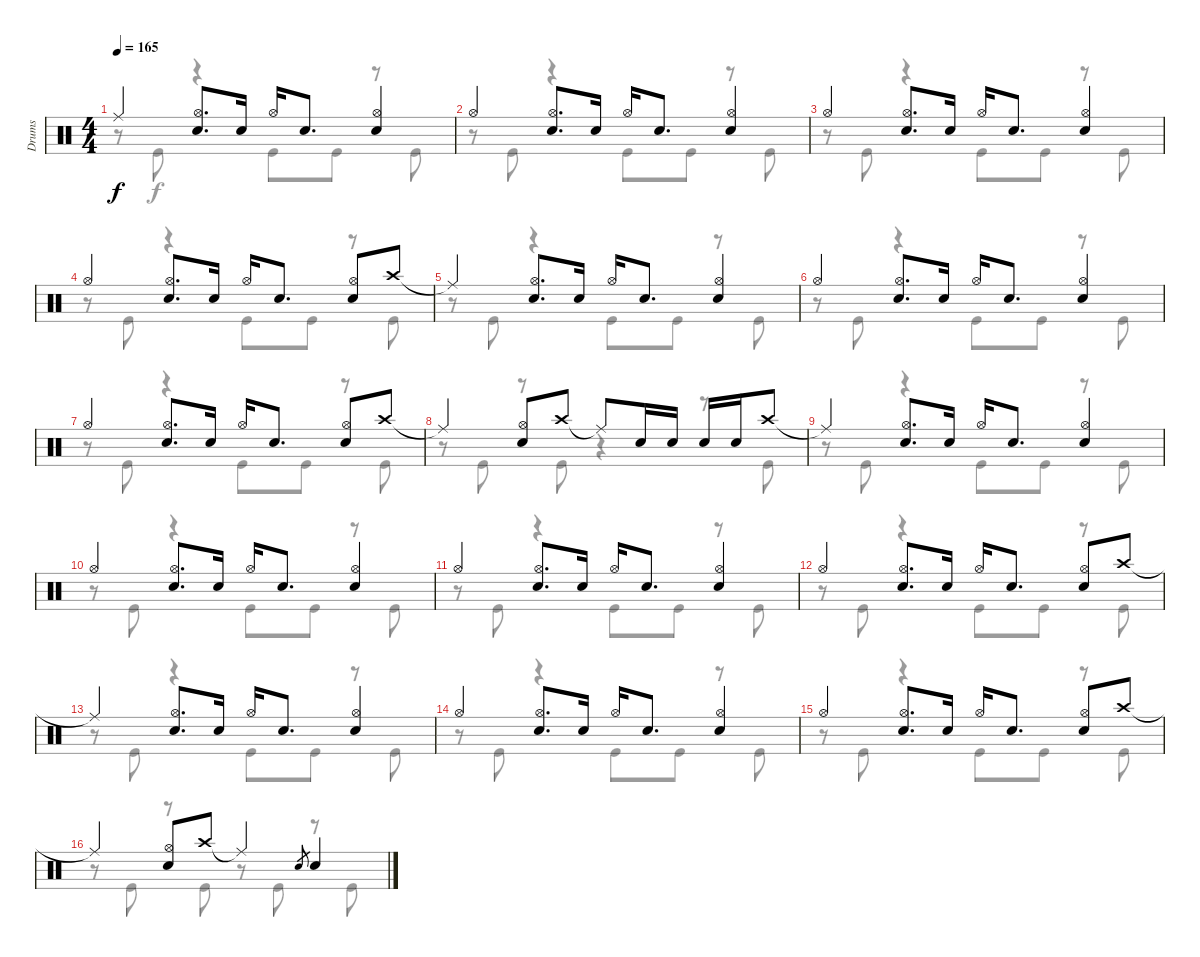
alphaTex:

\track ("Drums" "Drums") {instrument percussion}
\staff {score}
\articulation defaults
\voice
\ts (4 4)
\tempo 165
\clef neutral
\ks c "Ride (middle)"{t}.4{dy f beam Up}
("Hi-Hat (open)" "Snare (hit) 2").8{d beam Up} "Snare (hit) 2".16{beam Up} "Hi-Hat (open)".16{beam Up} "Snare (hit) 2".8{d beam Up} ("Hi-Hat (open)" "Snare (hit) 2").4{beam Up} |
"Hi-Hat (open)".4{beam Up} ("Hi-Hat (open)" "Snare (hit) 2").8{d beam Up} "Snare (hit) 2".16{beam Up} "Hi-Hat (open)".16{beam Up} "Snare (hit) 2".8{d beam Up} ("Hi-Hat (open)" "Snare (hit) 2").4{beam Up} |
"Hi-Hat (open)".4{beam Up} ("Hi-Hat (open)" "Snare (hit) 2").8{d beam Up} "Snare (hit) 2".16{beam Up} "Hi-Hat (open)".16{beam Up} "Snare (hit) 2".8{d beam Up} ("Hi-Hat (open)" "Snare (hit) 2").4{beam Up} |
"Hi-Hat (open)".4{beam Up} ("Hi-Hat (open)" "Snare (hit) 2").8{d beam Up} "Snare (hit) 2".16{beam Up} "Hi-Hat (open)".16{beam Up} "Snare (hit) 2".8{d beam Up} ("Hi-Hat (open)" "Snare (hit) 2").8{beam Up} "Crash high (hit)".8{beam Up} |
"Ride (middle)"{t}.4{beam Up} ("Hi-Hat (open)" "Snare (hit) 2").8{d beam Up} "Snare (hit) 2".16{beam Up} "Hi-Hat (open)".16{beam Up} "Snare (hit) 2".8{d beam Up} ("Hi-Hat (open)" "Snare (hit) 2").4{beam Up} |
"Hi-Hat (open)".4{beam Up} ("Hi-Hat (open)" "Snare (hit) 2").8{d beam Up} "Snare (hit) 2".16{beam Up} "Hi-Hat (open)".16{beam Up} "Snare (hit) 2".8{d beam Up} ("Hi-Hat (open)" "Snare (hit) 2").4{beam Up} |
"Hi-Hat (open)".4{beam Up} ("Hi-Hat (open)" "Snare (hit) 2").8{d beam Up} "Snare (hit) 2".16{beam Up} "Hi-Hat (open)".16{beam Up} "Snare (hit) 2".8{d beam Up} ("Hi-Hat (open)" "Snare (hit) 2").8{beam Up} "Crash high (hit)".8{beam Up} |
"Ride (middle)"{t}.4{beam Up} ("Hi-Hat (open)" "Snare (hit) 2").8{beam Up} "Crash high (hit)".8{beam Up} "Ride (middle)"{t}.8{beam Up} "Snare (hit) 2".16{beam Up} "Snare (hit) 2".16{beam Up} "Snare (hit) 2".16{beam Up} "Snare (hit) 2".16{beam Up} "Crash high (hit)".8{beam Up} |
"Ride (middle)"{t}.4{beam Up} ("Hi-Hat (open)" "Snare (hit) 2").8{d beam Up} "Snare (hit) 2".16{beam Up} "Hi-Hat (open)".16{beam Up} "Snare (hit) 2".8{d beam Up} ("Hi-Hat (open)" "Snare (hit) 2").4{beam Up} |
"Hi-Hat (open)".4{beam Up} ("Hi-Hat (open)" "Snare (hit) 2").8{d beam Up} "Snare (hit) 2".16{beam Up} "Hi-Hat (open)".16{beam Up} "Snare (hit) 2".8{d beam Up} ("Hi-Hat (open)" "Snare (hit) 2").4{beam Up} |
"Hi-Hat (open)".4{beam Up} ("Hi-Hat (open)" "Snare (hit) 2").8{d beam Up} "Snare (hit) 2".16{beam Up} "Hi-Hat (open)".16{beam Up} "Snare (hit) 2".8{d beam Up} ("Hi-Hat (open)" "Snare (hit) 2").4{beam Up} |
"Hi-Hat (open)".4{beam Up} ("Hi-Hat (open)" "Snare (hit) 2").8{d beam Up} "Snare (hit) 2".16{beam Up} "Hi-Hat (open)".16{beam Up} "Snare (hit) 2".8{d beam Up} ("Hi-Hat (open)" "Snare (hit) 2").8{beam Up} "Crash high (hit)".8{beam Up} |
"Ride (middle)"{t}.4{beam Up} ("Hi-Hat (open)" "Snare (hit) 2").8{d beam Up} "Snare (hit) 2".16{beam Up} "Hi-Hat (open)".16{beam Up} "Snare (hit) 2".8{d beam Up} ("Hi-Hat (open)" "Snare (hit) 2").4{beam Up} |
"Hi-Hat (open)".4{beam Up} ("Hi-Hat (open)" "Snare (hit) 2").8{d beam Up} "Snare (hit) 2".16{beam Up} "Hi-Hat (open)".16{beam Up} "Snare (hit) 2".8{d beam Up} ("Hi-Hat (open)" "Snare (hit) 2").4{beam Up} |
"Hi-Hat (open)".4{beam Up} ("Hi-Hat (open)" "Snare (hit) 2").8{d beam Up} "Snare (hit) 2".16{beam Up} "Hi-Hat (open)".16{beam Up} "Snare (hit) 2".8{d beam Up} ("Hi-Hat (open)" "Snare (hit) 2").8{beam Up} "Crash high (hit)".8{beam Up} |
"Ride (middle)"{t}.4{beam Up} ("Hi-Hat (open)" "Snare (hit) 2").8{beam Up} "Crash high (hit)".8{beam Up} "Ride (middle)"{t}.4{beam Up} "Snare (hit) 2".8{gr} "Snare (hit) 2".4{beam Up}
\voice
\clef neutral
\ottava regular
\simile none
\ks c
r.8{dy f} "Kick (hit)".8 r.4 "Kick (hit)".8 "Kick (hit)".8 r.8 "Kick (hit)".8 |
r.8 "Kick (hit)".8 r.4 "Kick (hit)".8 "Kick (hit)".8 r.8 "Kick (hit)".8 |
r.8 "Kick (hit)".8 r.4 "Kick (hit)".8 "Kick (hit)".8 r.8 "Kick (hit)".8 |
r.8 "Kick (hit)".8 r.4 "Kick (hit)".8 "Kick (hit)".8 r.8 "Kick (hit)".8 |
r.8 "Kick (hit)".8 r.4 "Kick (hit)".8 "Kick (hit)".8 r.8 "Kick (hit)".8 |
r.8 "Kick (hit)".8 r.4 "Kick (hit)".8 "Kick (hit)".8 r.8 "Kick (hit)".8 |
r.8 "Kick (hit)".8 r.4 "Kick (hit)".8 "Kick (hit)".8 r.8 "Kick (hit)".8 |
r.8 "Kick (hit)".8 r.8 "Kick (hit)".8 r.4 r.8 "Kick (hit)".8 |
r.8 "Kick (hit)".8 r.4 "Kick (hit)".8 "Kick (hit)".8 r.8 "Kick (hit)".8 |
r.8 "Kick (hit)".8 r.4 "Kick (hit)".8 "Kick (hit)".8 r.8 "Kick (hit)".8 |
r.8 "Kick (hit)".8 r.4 "Kick (hit)".8 "Kick (hit)".8 r.8 "Kick (hit)".8 |
r.8 "Kick (hit)".8 r.4 "Kick (hit)".8 "Kick (hit)".8 r.8 "Kick (hit)".8 |
r.8 "Kick (hit)".8 r.4 "Kick (hit)".8 "Kick (hit)".8 r.8 "Kick (hit)".8 |
r.8 "Kick (hit)".8 r.4 "Kick (hit)".8 "Kick (hit)".8 r.8 "Kick (hit)".8 |
r.8 "Kick (hit)".8 r.4 "Kick (hit)".8 "Kick (hit)".8 r.8 "Kick (hit)".8 |
r.8 "Kick (hit)".8 r.8 "Kick (hit)".8 r.8 "Kick (hit)".8 r.8 "Kick (hit)".8
